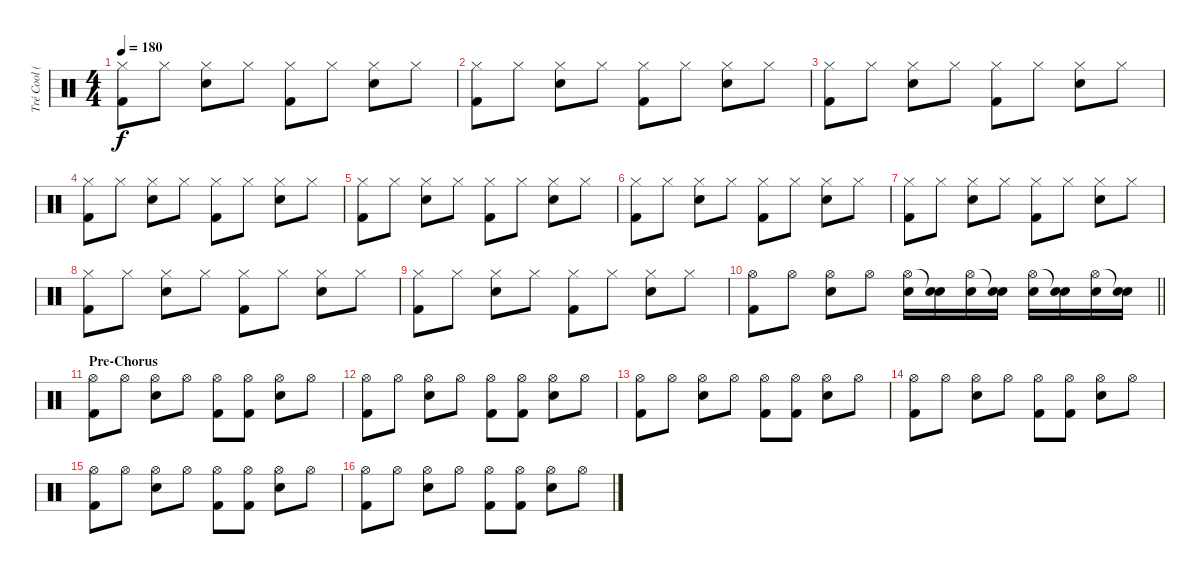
\track ("Tré Cool (Drums)" "Tré Cool (") {instrument percussion}
\staff {score}
\articulation defaults
\ts (4 4)
\tempo 180
\clef neutral
\ks c
("Kick (hit) 2" "Hi-Hat (closed)").8{dy f} "Hi-Hat (closed)".8 ("Snare (hit) 2" "Hi-Hat (closed)").8 "Hi-Hat (closed)".8 ("Kick (hit) 2" "Hi-Hat (closed)").8 "Hi-Hat (closed)".8 ("Snare (hit) 2" "Hi-Hat (closed)").8 "Hi-Hat (closed)".8 |
("Kick (hit) 2" "Hi-Hat (closed)").8 "Hi-Hat (closed)".8 ("Snare (hit) 2" "Hi-Hat (closed)").8 "Hi-Hat (closed)".8 ("Kick (hit) 2" "Hi-Hat (closed)").8 "Hi-Hat (closed)".8 ("Snare (hit) 2" "Hi-Hat (closed)").8 "Hi-Hat (closed)".8 |
("Kick (hit) 2" "Hi-Hat (closed)").8 "Hi-Hat (closed)".8 ("Snare (hit) 2" "Hi-Hat (closed)").8 "Hi-Hat (closed)".8 ("Kick (hit) 2" "Hi-Hat (closed)").8 "Hi-Hat (closed)".8 ("Snare (hit) 2" "Hi-Hat (closed)").8 "Hi-Hat (closed)".8 |
("Kick (hit) 2" "Hi-Hat (closed)").8 "Hi-Hat (closed)".8 ("Snare (hit) 2" "Hi-Hat (closed)").8 "Hi-Hat (closed)".8 ("Kick (hit) 2" "Hi-Hat (closed)").8 "Hi-Hat (closed)".8 ("Snare (hit) 2" "Hi-Hat (closed)").8 "Hi-Hat (closed)".8 |
("Kick (hit) 2" "Hi-Hat (closed)").8 "Hi-Hat (closed)".8 ("Snare (hit) 2" "Hi-Hat (closed)").8 "Hi-Hat (closed)".8 ("Kick (hit) 2" "Hi-Hat (closed)").8 "Hi-Hat (closed)".8 ("Snare (hit) 2" "Hi-Hat (closed)").8 "Hi-Hat (closed)".8 |
("Kick (hit) 2" "Hi-Hat (closed)").8 "Hi-Hat (closed)".8 ("Snare (hit) 2" "Hi-Hat (closed)").8 "Hi-Hat (closed)".8 ("Kick (hit) 2" "Hi-Hat (closed)").8 "Hi-Hat (closed)".8 ("Snare (hit) 2" "Hi-Hat (closed)").8 "Hi-Hat (closed)".8 |
("Kick (hit) 2" "Hi-Hat (closed)").8 "Hi-Hat (closed)".8 ("Snare (hit) 2" "Hi-Hat (closed)").8 "Hi-Hat (closed)".8 ("Kick (hit) 2" "Hi-Hat (closed)").8 "Hi-Hat (closed)".8 ("Snare (hit) 2" "Hi-Hat (closed)").8 "Hi-Hat (closed)".8 |
("Kick (hit) 2" "Hi-Hat (closed)").8 "Hi-Hat (closed)".8 ("Snare (hit) 2" "Hi-Hat (closed)").8 "Hi-Hat (closed)".8 ("Kick (hit) 2" "Hi-Hat (closed)").8 "Hi-Hat (closed)".8 ("Snare (hit) 2" "Hi-Hat (closed)").8 "Hi-Hat (closed)".8 |
("Kick (hit) 2" "Hi-Hat (closed)").8 "Hi-Hat (closed)".8 ("Snare (hit) 2" "Hi-Hat (closed)").8 "Hi-Hat (closed)".8 ("Kick (hit) 2" "Hi-Hat (closed)").8 "Hi-Hat (closed)".8 ("Snare (hit) 2" "Hi-Hat (closed)").8 "Hi-Hat (closed)".8 |
\barLineRight lightlight
("Kick (hit) 2" "Hi-Hat (open)").8 "Hi-Hat (open)".8 ("Snare (hit) 2" "Hi-Hat (open)").8 "Hi-Hat (open)".8 ("Electric Snare (hit)" "Hi-Hat (open)").16 ("Snare (hit) 2" "Snare (hit)"{t}).16 ("Snare (hit) 2" "Hi-Hat (open)").16 ("Snare (hit) 2" "Snare (hit)"{t}).16 ("Electric Snare (hit)" "Hi-Hat (open)").16 ("Snare (hit) 2" "Snare (hit)"{t}).16 ("Snare (hit) 2" "Hi-Hat (open)").16 ("Electric Snare (hit)" "Snare (hit)"{t}).16 |
\section ("" "Pre-Chorus")
("Kick (hit) 2" "Hi-Hat (open)").8 "Hi-Hat (open)".8 ("Snare (hit) 2" "Hi-Hat (open)").8 "Hi-Hat (open)".8 ("Kick (hit) 2" "Hi-Hat (open)").8 ("Kick (hit) 2" "Hi-Hat (open)").8 ("Snare (hit) 2" "Hi-Hat (open)").8 "Hi-Hat (open)".8 |
("Kick (hit) 2" "Hi-Hat (open)").8 "Hi-Hat (open)".8 ("Snare (hit) 2" "Hi-Hat (open)").8 "Hi-Hat (open)".8 ("Kick (hit) 2" "Hi-Hat (open)").8 ("Kick (hit) 2" "Hi-Hat (open)").8 ("Snare (hit) 2" "Hi-Hat (open)").8 "Hi-Hat (open)".8 |
("Kick (hit) 2" "Hi-Hat (open)").8 "Hi-Hat (open)".8 ("Snare (hit) 2" "Hi-Hat (open)").8 "Hi-Hat (open)".8 ("Kick (hit) 2" "Hi-Hat (open)").8 ("Kick (hit) 2" "Hi-Hat (open)").8 ("Snare (hit) 2" "Hi-Hat (open)").8 "Hi-Hat (open)".8 |
("Kick (hit) 2" "Hi-Hat (open)").8 "Hi-Hat (open)".8 ("Snare (hit) 2" "Hi-Hat (open)").8 "Hi-Hat (open)".8 ("Kick (hit) 2" "Hi-Hat (open)").8 ("Kick (hit) 2" "Hi-Hat (open)").8 ("Snare (hit) 2" "Hi-Hat (open)").8 "Hi-Hat (open)".8 |
("Kick (hit) 2" "Hi-Hat (open)").8 "Hi-Hat (open)".8 ("Snare (hit) 2" "Hi-Hat (open)").8 "Hi-Hat (open)".8 ("Kick (hit) 2" "Hi-Hat (open)").8 ("Kick (hit) 2" "Hi-Hat (open)").8 ("Snare (hit) 2" "Hi-Hat (open)").8 "Hi-Hat (open)".8 |
("Kick (hit) 2" "Hi-Hat (open)").8 "Hi-Hat (open)".8 ("Snare (hit) 2" "Hi-Hat (open)").8 "Hi-Hat (open)".8 ("Kick (hit) 2" "Hi-Hat (open)").8 ("Kick (hit) 2" "Hi-Hat (open)").8 ("Snare (hit) 2" "Hi-Hat (open)").8 "Hi-Hat (open)".8
